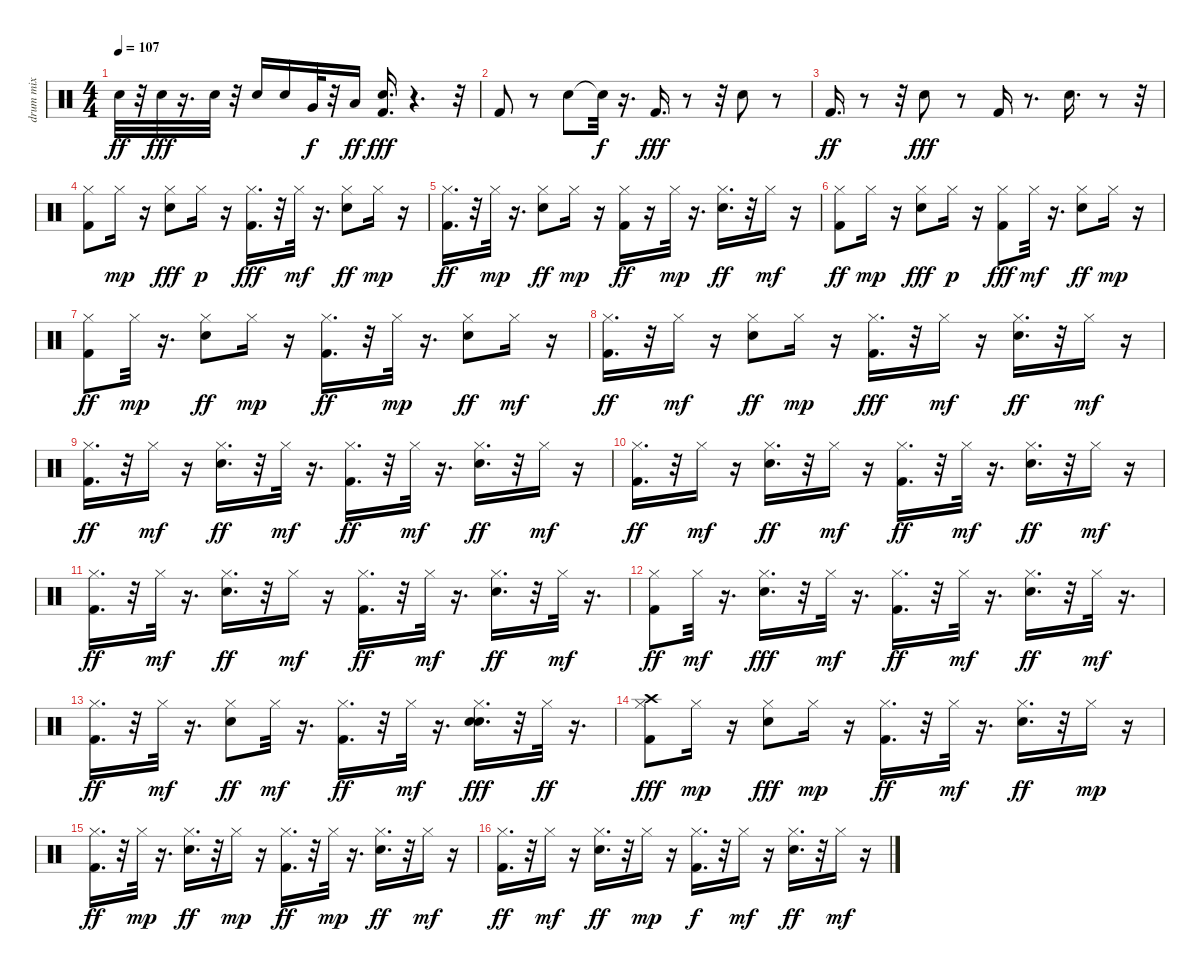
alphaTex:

\track ("drum mix" "drum mix") {instrument percussion}
\staff {score}
\articulation defaults
\ts (4 4)
\tempo 107
\clef neutral
\ks c "Electric Snare (hit)".32{dy ff}
r.32 "Electric Snare (hit)".32{dy fff} r.16{d} "Electric Snare (hit)".32 r.32 "Electric Snare (hit)".16 "Electric Snare (hit)".16 "Very Low Tom (hit)".32{dy f} r.32 "Low Floor Tom (hit)".16{dy ff} ("Kick (hit) 2" "Electric Snare (hit)").16{d dy fff} r.4{d} r.32 |
"Kick (hit) 2".8 r.8 "Electric Snare (hit)".8 "Snare (hit)"{t}.32{dy f} r.16{d} "Kick (hit) 2".16{d dy fff} r.8 r.32 "Electric Snare (hit)".8 r.8 |
"Kick (hit) 2".16{d dy ff} r.8 r.32 "Electric Snare (hit)".8{dy fff} r.8 "Kick (hit) 2".16 r.8{d} "Electric Snare (hit)".16{d} r.8 r.32 |
("Kick (hit) 2" "Hi-Hat (closed)").8 "Hi-Hat (closed)".16{dy mp} r.16 ("Electric Snare (hit)" "Hi-Hat (closed)").8{dy fff} "Hi-Hat (closed)".16{dy p} r.16 ("Kick (hit) 2" "Hi-Hat (closed)").16{d dy fff} r.32 "Hi-Hat (closed)".32{dy mf} r.16{d} ("Electric Snare (hit)" "Hi-Hat (closed)").8{dy ff} "Hi-Hat (closed)".16{dy mp} r.16 |
("Kick (hit) 2" "Hi-Hat (closed)").16{d dy ff} r.32 "Hi-Hat (closed)".32{dy mp} r.16{d} ("Electric Snare (hit)" "Hi-Hat (closed)").8{dy ff} "Hi-Hat (closed)".16{dy mp} r.16 ("Kick (hit) 2" "Hi-Hat (closed)").16{dy ff} r.16 "Hi-Hat (closed)".32{dy mp} r.16{d} ("Electric Snare (hit)" "Hi-Hat (closed)").16{d dy ff} r.32 "Hi-Hat (closed)".16{dy mf} r.16 |
("Kick (hit) 2" "Hi-Hat (closed)").8{dy ff} "Hi-Hat (closed)".16{dy mp} r.16 ("Electric Snare (hit)" "Hi-Hat (closed)").8{dy fff} "Hi-Hat (closed)".16{dy p} r.16 ("Kick (hit) 2" "Hi-Hat (closed)").8{dy fff} "Hi-Hat (closed)".32{dy mf} r.16{d} ("Electric Snare (hit)" "Hi-Hat (closed)").8{dy ff} "Hi-Hat (closed)".16{dy mp} r.16 |
("Kick (hit) 2" "Hi-Hat (closed)").8{dy ff} "Hi-Hat (closed)".32{dy mp} r.16{d} ("Electric Snare (hit)" "Hi-Hat (closed)").8{dy ff} "Hi-Hat (closed)".16{dy mp} r.16 ("Kick (hit) 2" "Hi-Hat (closed)").16{d dy ff} r.32 "Hi-Hat (closed)".32{dy mp} r.16{d} ("Electric Snare (hit)" "Hi-Hat (closed)").8{dy ff} "Hi-Hat (closed)".16{dy mf} r.16 |
("Kick (hit) 2" "Hi-Hat (closed)").16{d dy ff} r.32 "Hi-Hat (closed)".16{dy mf} r.16 ("Electric Snare (hit)" "Hi-Hat (closed)").8{dy ff} "Hi-Hat (closed)".16{dy mp} r.16 ("Kick (hit) 2" "Hi-Hat (closed)").16{d dy fff} r.32 "Hi-Hat (closed)".16{dy mf} r.16 ("Electric Snare (hit)" "Hi-Hat (closed)").16{d dy ff} r.32 "Hi-Hat (closed)".16{dy mf} r.16 |
("Kick (hit) 2" "Hi-Hat (closed)").16{d dy ff} r.32 "Hi-Hat (closed)".16{dy mf} r.16 ("Electric Snare (hit)" "Hi-Hat (closed)").16{d dy ff} r.32 "Hi-Hat (closed)".32{dy mf} r.16{d} ("Kick (hit) 2" "Hi-Hat (closed)").16{d dy ff} r.32 "Hi-Hat (closed)".32{dy mf} r.16{d} ("Electric Snare (hit)" "Hi-Hat (closed)").16{d dy ff} r.32 "Hi-Hat (closed)".16{dy mf} r.16 |
("Kick (hit) 2" "Hi-Hat (closed)").16{d dy ff} r.32 "Hi-Hat (closed)".16{dy mf} r.16 ("Electric Snare (hit)" "Hi-Hat (closed)").16{d dy ff} r.32 "Hi-Hat (closed)".16{dy mf} r.16 ("Kick (hit) 2" "Hi-Hat (closed)").16{d dy ff} r.32 "Hi-Hat (closed)".32{dy mf} r.16{d} ("Electric Snare (hit)" "Hi-Hat (closed)").16{d dy ff} r.32 "Hi-Hat (closed)".16{dy mf} r.16 |
("Kick (hit) 2" "Hi-Hat (closed)").16{d dy ff} r.32 "Hi-Hat (closed)".32{dy mf} r.16{d} ("Electric Snare (hit)" "Hi-Hat (closed)").16{d dy ff} r.32 "Hi-Hat (closed)".16{dy mf} r.16 ("Kick (hit) 2" "Hi-Hat (closed)").16{d dy ff} r.32 "Hi-Hat (closed)".32{dy mf} r.16{d} ("Electric Snare (hit)" "Hi-Hat (closed)").16{d dy ff} r.32 "Hi-Hat (closed)".32{dy mf} r.16{d} |
("Kick (hit) 2" "Hi-Hat (closed)").8{dy ff} "Hi-Hat (closed)".32{dy mf} r.16{d} ("Electric Snare (hit)" "Hi-Hat (closed)").16{d dy fff} r.32 "Hi-Hat (closed)".32{dy mf} r.16{d} ("Kick (hit) 2" "Hi-Hat (closed)").16{d dy ff} r.32 "Hi-Hat (closed)".32{dy mf} r.16{d} ("Electric Snare (hit)" "Hi-Hat (closed)").16{d dy ff} r.32 "Hi-Hat (closed)".32{dy mf} r.16{d} |
("Kick (hit) 2" "Hi-Hat (closed)").16{d dy ff} r.32 "Hi-Hat (closed)".32{dy mf} r.16{d} ("Electric Snare (hit)" "Hi-Hat (closed)").8{dy ff} "Hi-Hat (closed)".32{dy mf} r.16{d} ("Kick (hit) 2" "Hi-Hat (closed)").16{d dy ff} r.32 "Hi-Hat (closed)".32{dy mf} r.16{d} ("Electric Snare (hit)" "Hi-Hat (closed)" "Electric Snare (hit)").16{d dy fff} r.32 "Hi-Hat (closed)".32{dy ff} r.16{d} |
("Kick (hit) 2" "Hi-Hat (closed)" "Crash high (hit)").8{dy fff} "Hi-Hat (closed)".16{dy mp} r.16 ("Electric Snare (hit)" "Hi-Hat (closed)").8{dy fff} "Hi-Hat (closed)".16{dy mp} r.16 ("Kick (hit) 2" "Hi-Hat (closed)").16{d dy ff} r.32 "Hi-Hat (closed)".32{dy mf} r.16{d} ("Electric Snare (hit)" "Hi-Hat (closed)").16{d dy ff} r.32 "Hi-Hat (closed)".16{dy mp} r.16 |
("Kick (hit) 2" "Hi-Hat (closed)").16{d dy ff} r.32 "Hi-Hat (closed)".32{dy mp} r.16{d} ("Electric Snare (hit)" "Hi-Hat (closed)").16{d dy ff} r.32 "Hi-Hat (closed)".16{dy mp} r.16 ("Kick (hit) 2" "Hi-Hat (closed)").16{d dy ff} r.32 "Hi-Hat (closed)".32{dy mp} r.16{d} ("Electric Snare (hit)" "Hi-Hat (closed)").16{d dy ff} r.32 "Hi-Hat (closed)".16{dy mf} r.16 |
("Kick (hit) 2" "Hi-Hat (closed)").16{d dy ff} r.32 "Hi-Hat (closed)".16{dy mf} r.16 ("Electric Snare (hit)" "Hi-Hat (closed)").16{d dy ff} r.32 "Hi-Hat (closed)".16{dy mp} r.16 ("Kick (hit) 2" "Hi-Hat (closed)").16{d dy f} r.32 "Hi-Hat (closed)".16{dy mf} r.16 ("Electric Snare (hit)" "Hi-Hat (closed)").16{d dy ff} r.32 "Hi-Hat (closed)".16{dy mf} r.16
